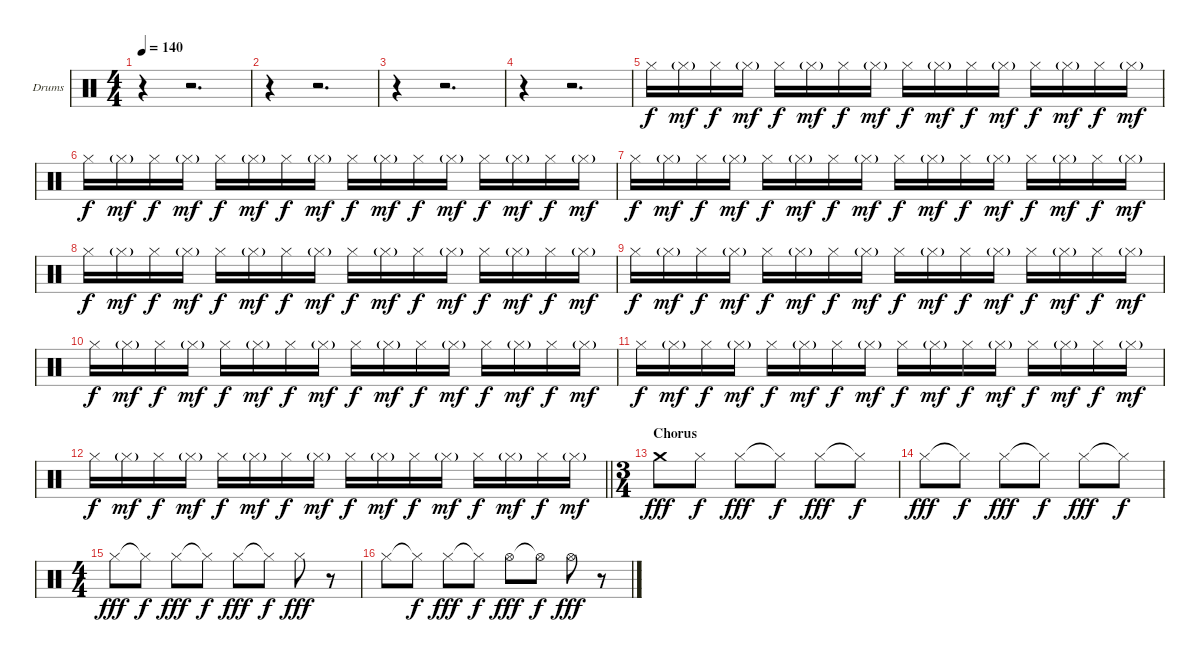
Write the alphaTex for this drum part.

\bracketExtendMode groupsimilarinstruments
\firstSystemTrackNameOrientation horizontal
\otherSystemsTrackNameOrientation horizontal
\track ("Drumkit" "Drums") {instrument percussion}
\staff {score}
\articulation defaults
\ts (4 4)
\tempo 140
\clef neutral
\ks c
r.4{dy fff} r.2{d} |
r.4 r.2{d} |
r.4 r.2{d} |
r.4 r.2{d} |
"Hi-Hat (closed)".16{dy f} "Hi-Hat (closed)"{g}.16{dy mf} "Hi-Hat (closed)".16{dy f} "Hi-Hat (closed)"{g}.16{dy mf} "Hi-Hat (closed)".16{dy f} "Hi-Hat (closed)"{g}.16{dy mf} "Hi-Hat (closed)".16{dy f} "Hi-Hat (closed)"{g}.16{dy mf} "Hi-Hat (closed)".16{dy f} "Hi-Hat (closed)"{g}.16{dy mf} "Hi-Hat (closed)".16{dy f} "Hi-Hat (closed)"{g}.16{dy mf} "Hi-Hat (closed)".16{dy f} "Hi-Hat (closed)"{g}.16{dy mf} "Hi-Hat (closed)".16{dy f} "Hi-Hat (closed)"{g}.16{dy mf} |
"Hi-Hat (closed)".16{dy f} "Hi-Hat (closed)"{g}.16{dy mf} "Hi-Hat (closed)".16{dy f} "Hi-Hat (closed)"{g}.16{dy mf} "Hi-Hat (closed)".16{dy f} "Hi-Hat (closed)"{g}.16{dy mf} "Hi-Hat (closed)".16{dy f} "Hi-Hat (closed)"{g}.16{dy mf} "Hi-Hat (closed)".16{dy f} "Hi-Hat (closed)"{g}.16{dy mf} "Hi-Hat (closed)".16{dy f} "Hi-Hat (closed)"{g}.16{dy mf} "Hi-Hat (closed)".16{dy f} "Hi-Hat (closed)"{g}.16{dy mf} "Hi-Hat (closed)".16{dy f} "Hi-Hat (closed)"{g}.16{dy mf} |
"Hi-Hat (closed)".16{dy f} "Hi-Hat (closed)"{g}.16{dy mf} "Hi-Hat (closed)".16{dy f} "Hi-Hat (closed)"{g}.16{dy mf} "Hi-Hat (closed)".16{dy f} "Hi-Hat (closed)"{g}.16{dy mf} "Hi-Hat (closed)".16{dy f} "Hi-Hat (closed)"{g}.16{dy mf} "Hi-Hat (closed)".16{dy f} "Hi-Hat (closed)"{g}.16{dy mf} "Hi-Hat (closed)".16{dy f} "Hi-Hat (closed)"{g}.16{dy mf} "Hi-Hat (closed)".16{dy f} "Hi-Hat (closed)"{g}.16{dy mf} "Hi-Hat (closed)".16{dy f} "Hi-Hat (closed)"{g}.16{dy mf} |
"Hi-Hat (closed)".16{dy f} "Hi-Hat (closed)"{g}.16{dy mf} "Hi-Hat (closed)".16{dy f} "Hi-Hat (closed)"{g}.16{dy mf} "Hi-Hat (closed)".16{dy f} "Hi-Hat (closed)"{g}.16{dy mf} "Hi-Hat (closed)".16{dy f} "Hi-Hat (closed)"{g}.16{dy mf} "Hi-Hat (closed)".16{dy f} "Hi-Hat (closed)"{g}.16{dy mf} "Hi-Hat (closed)".16{dy f} "Hi-Hat (closed)"{g}.16{dy mf} "Hi-Hat (closed)".16{dy f} "Hi-Hat (closed)"{g}.16{dy mf} "Hi-Hat (closed)".16{dy f} "Hi-Hat (closed)"{g}.16{dy mf} |
"Hi-Hat (closed)".16{dy f} "Hi-Hat (closed)"{g}.16{dy mf} "Hi-Hat (closed)".16{dy f} "Hi-Hat (closed)"{g}.16{dy mf} "Hi-Hat (closed)".16{dy f} "Hi-Hat (closed)"{g}.16{dy mf} "Hi-Hat (closed)".16{dy f} "Hi-Hat (closed)"{g}.16{dy mf} "Hi-Hat (closed)".16{dy f} "Hi-Hat (closed)"{g}.16{dy mf} "Hi-Hat (closed)".16{dy f} "Hi-Hat (closed)"{g}.16{dy mf} "Hi-Hat (closed)".16{dy f} "Hi-Hat (closed)"{g}.16{dy mf} "Hi-Hat (closed)".16{dy f} "Hi-Hat (closed)"{g}.16{dy mf} |
"Hi-Hat (closed)".16{dy f} "Hi-Hat (closed)"{g}.16{dy mf} "Hi-Hat (closed)".16{dy f} "Hi-Hat (closed)"{g}.16{dy mf} "Hi-Hat (closed)".16{dy f} "Hi-Hat (closed)"{g}.16{dy mf} "Hi-Hat (closed)".16{dy f} "Hi-Hat (closed)"{g}.16{dy mf} "Hi-Hat (closed)".16{dy f} "Hi-Hat (closed)"{g}.16{dy mf} "Hi-Hat (closed)".16{dy f} "Hi-Hat (closed)"{g}.16{dy mf} "Hi-Hat (closed)".16{dy f} "Hi-Hat (closed)"{g}.16{dy mf} "Hi-Hat (closed)".16{dy f} "Hi-Hat (closed)"{g}.16{dy mf} |
"Hi-Hat (closed)".16{dy f} "Hi-Hat (closed)"{g}.16{dy mf} "Hi-Hat (closed)".16{dy f} "Hi-Hat (closed)"{g}.16{dy mf} "Hi-Hat (closed)".16{dy f} "Hi-Hat (closed)"{g}.16{dy mf} "Hi-Hat (closed)".16{dy f} "Hi-Hat (closed)"{g}.16{dy mf} "Hi-Hat (closed)".16{dy f} "Hi-Hat (closed)"{g}.16{dy mf} "Hi-Hat (closed)".16{dy f} "Hi-Hat (closed)"{g}.16{dy mf} "Hi-Hat (closed)".16{dy f} "Hi-Hat (closed)"{g}.16{dy mf} "Hi-Hat (closed)".16{dy f} "Hi-Hat (closed)"{g}.16{dy mf} |
\barLineRight lightlight "Hi-Hat (closed)".16{dy f} "Hi-Hat (closed)"{g}.16{dy mf} "Hi-Hat (closed)".16{dy f} "Hi-Hat (closed)"{g}.16{dy mf} "Hi-Hat (closed)".16{dy f} "Hi-Hat (closed)"{g}.16{dy mf} "Hi-Hat (closed)".16{dy f} "Hi-Hat (closed)"{g}.16{dy mf} "Hi-Hat (closed)".16{dy f} "Hi-Hat (closed)"{g}.16{dy mf} "Hi-Hat (closed)".16{dy f} "Hi-Hat (closed)"{g}.16{dy mf} "Hi-Hat (closed)".16{dy f} "Hi-Hat (closed)"{g}.16{dy mf} "Hi-Hat (closed)".16{dy f} "Hi-Hat (closed)"{g}.16{dy mf}
|
\ts (3 4)
\beaming (8 2 2 2)
\section ("" "Chorus")
"Crash medium (hit)".8{dy fff} "Hi-Hat (closed)".8{dy f} "Hi-Hat (closed)".8{dy fff} "Hi-Hat (closed)"{t}.8{dy f} "Hi-Hat (closed)".8{dy fff} "Hi-Hat (closed)"{t}.8{dy f} |
"Hi-Hat (closed)".8{dy fff} "Hi-Hat (closed)"{t}.8{dy f} "Hi-Hat (closed)".8{dy fff} "Hi-Hat (closed)"{t}.8{dy f} "Hi-Hat (closed)".8{dy fff} "Hi-Hat (closed)"{t}.8{dy f} |
\ts (4 4)
\beaming (8 2 2 2 2)
"Hi-Hat (closed)".8{dy fff} "Hi-Hat (closed)"{t}.8{dy f} "Hi-Hat (closed)".8{dy fff} "Hi-Hat (closed)"{t}.8{dy f} "Hi-Hat (closed)".8{dy fff} "Hi-Hat (closed)"{t}.8{dy f} "Hi-Hat (closed)".8{dy fff} r.8 |
"Hi-Hat (closed)".8 "Hi-Hat (closed)"{t}.8{dy f} "Hi-Hat (closed)".8{dy fff} "Hi-Hat (closed)"{t}.8{dy f} "Hi-Hat (open)".8{dy fff} "Hi-Hat (open)"{t}.8{dy f} "Hi-Hat (open)".8{dy fff} r.8
